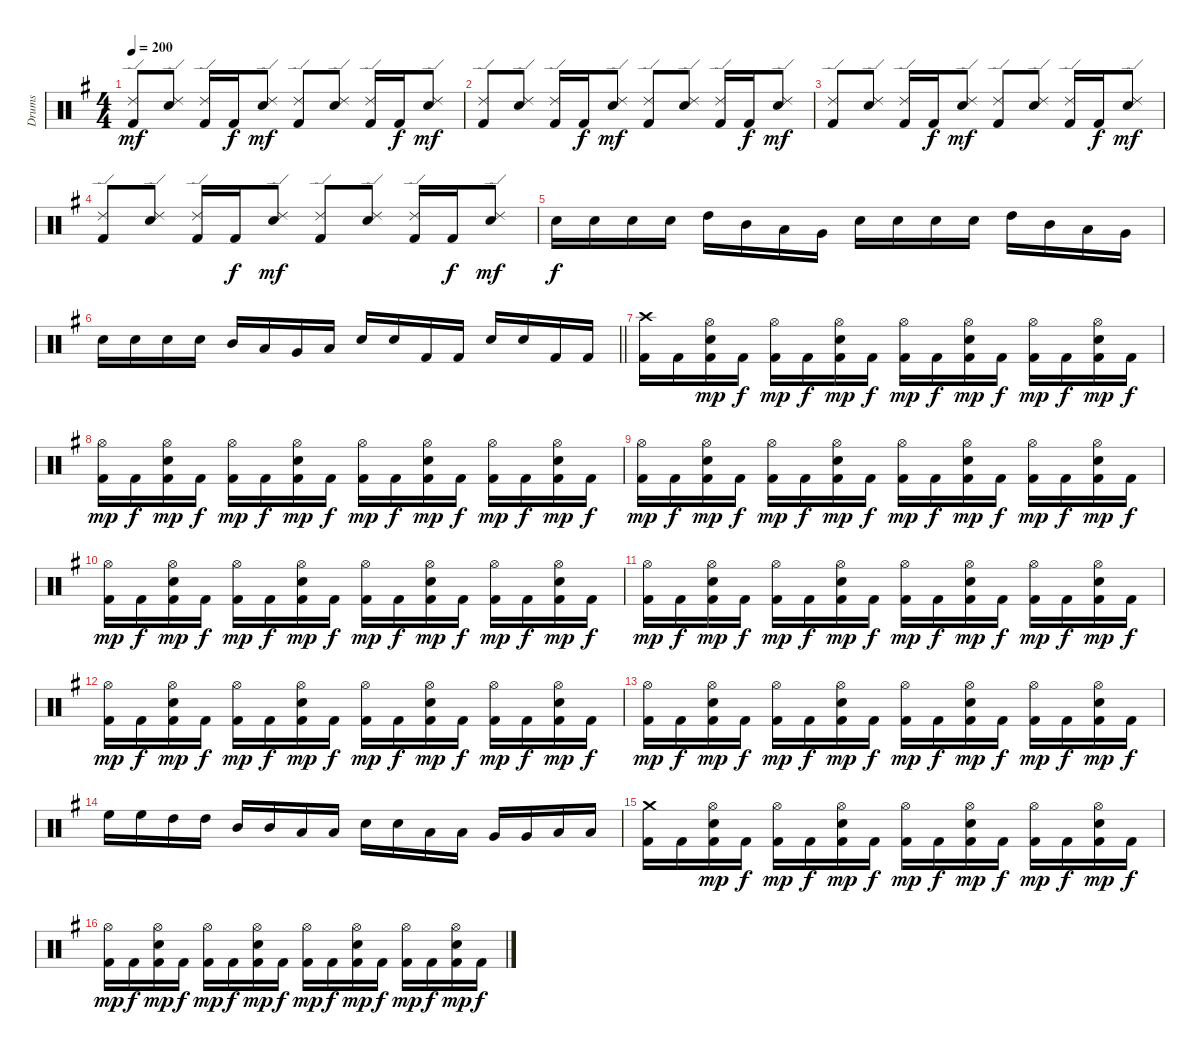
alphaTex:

\track ("Drums" "Drums") {instrument percussion}
\staff {score}
\articulation defaults
\ts (4 4)
\tempo 200
\clef neutral
\ks g
("Ride (edge) 2" "Kick (hit) 2").8{dy mf} ("Ride (edge) 2" "Snare (hit) 2").8 ("Ride (edge) 2" "Kick (hit) 2").16 "Kick (hit) 2".16{dy f} ("Ride (edge) 2" "Snare (hit) 2").8{dy mf} ("Ride (edge) 2" "Kick (hit) 2").8 ("Ride (edge) 2" "Snare (hit) 2").8 ("Ride (edge) 2" "Kick (hit) 2").16 "Kick (hit) 2".16{dy f} ("Ride (edge) 2" "Snare (hit) 2").8{dy mf} |
("Ride (edge) 2" "Kick (hit) 2").8 ("Ride (edge) 2" "Snare (hit) 2").8 ("Ride (edge) 2" "Kick (hit) 2").16 "Kick (hit) 2".16{dy f} ("Ride (edge) 2" "Snare (hit) 2").8{dy mf} ("Ride (edge) 2" "Kick (hit) 2").8 ("Ride (edge) 2" "Snare (hit) 2").8 ("Ride (edge) 2" "Kick (hit) 2").16 "Kick (hit) 2".16{dy f} ("Ride (edge) 2" "Snare (hit) 2").8{dy mf} |
("Ride (edge) 2" "Kick (hit) 2").8 ("Ride (edge) 2" "Snare (hit) 2").8 ("Ride (edge) 2" "Kick (hit) 2").16 "Kick (hit) 2".16{dy f} ("Ride (edge) 2" "Snare (hit) 2").8{dy mf} ("Ride (edge) 2" "Kick (hit) 2").8 ("Ride (edge) 2" "Snare (hit) 2").8 ("Ride (edge) 2" "Kick (hit) 2").16 "Kick (hit) 2".16{dy f} ("Ride (edge) 2" "Snare (hit) 2").8{dy mf} |
("Ride (edge) 2" "Kick (hit) 2").8 ("Ride (edge) 2" "Snare (hit) 2").8 ("Ride (edge) 2" "Kick (hit) 2").16 "Kick (hit) 2".16{dy f} ("Ride (edge) 2" "Snare (hit) 2").8{dy mf} ("Ride (edge) 2" "Kick (hit) 2").8 ("Ride (edge) 2" "Snare (hit) 2").8 ("Ride (edge) 2" "Kick (hit) 2").16 "Kick (hit) 2".16{dy f} ("Ride (edge) 2" "Snare (hit) 2").8{dy mf} |
"Snare (hit) 2".16{dy f} "Snare (hit) 2".16 "Snare (hit) 2".16 "Snare (hit) 2".16 "High Tom (hit)".16 "Mid Tom (hit)".16 "Low Tom (hit)".16 "Very Low Tom (hit)".16 "Snare (hit) 2".16 "Snare (hit) 2".16 "Snare (hit) 2".16 "Snare (hit) 2".16 "High Tom (hit)".16 "Mid Tom (hit)".16 "Low Tom (hit)".16 "Very Low Tom (hit)".16 |
\barLineRight lightlight "Snare (hit) 2".16 "Snare (hit) 2".16 "Snare (hit) 2".16 "Snare (hit) 2".16 "Mid Tom (hit)".16 "Low Tom (hit)".16 "Very Low Tom (hit)".16 "Low Floor Tom (hit)".16 "Snare (hit) 2".16 "Snare (hit) 2".16 "Kick (hit) 2".16 "Kick (hit) 2".16 "Snare (hit) 2".16 "Snare (hit) 2".16 "Kick (hit) 2".16 "Kick (hit) 2".16
|
\section ("" "")
("Crash high (hit)" "Kick (hit) 2").16 "Kick (hit) 2".16 ("Hi-Hat (open)" "Snare (hit) 2" "Kick (hit) 2").16{dy mp} "Kick (hit) 2".16{dy f} ("Hi-Hat (open)" "Kick (hit) 2").16{dy mp} "Kick (hit) 2".16{dy f} ("Hi-Hat (open)" "Snare (hit) 2" "Kick (hit) 2").16{dy mp} "Kick (hit) 2".16{dy f} ("Hi-Hat (open)" "Kick (hit) 2").16{dy mp} "Kick (hit) 2".16{dy f} ("Hi-Hat (open)" "Snare (hit) 2" "Kick (hit) 2").16{dy mp} "Kick (hit) 2".16{dy f} ("Hi-Hat (open)" "Kick (hit) 2").16{dy mp} "Kick (hit) 2".16{dy f} ("Hi-Hat (open)" "Snare (hit) 2" "Kick (hit) 2").16{dy mp} "Kick (hit) 2".16{dy f} |
("Hi-Hat (open)" "Kick (hit) 2").16{dy mp} "Kick (hit) 2".16{dy f} ("Hi-Hat (open)" "Snare (hit) 2" "Kick (hit) 2").16{dy mp} "Kick (hit) 2".16{dy f} ("Hi-Hat (open)" "Kick (hit) 2").16{dy mp} "Kick (hit) 2".16{dy f} ("Hi-Hat (open)" "Snare (hit) 2" "Kick (hit) 2").16{dy mp} "Kick (hit) 2".16{dy f} ("Hi-Hat (open)" "Kick (hit) 2").16{dy mp} "Kick (hit) 2".16{dy f} ("Hi-Hat (open)" "Snare (hit) 2" "Kick (hit) 2").16{dy mp} "Kick (hit) 2".16{dy f} ("Hi-Hat (open)" "Kick (hit) 2").16{dy mp} "Kick (hit) 2".16{dy f} ("Hi-Hat (open)" "Snare (hit) 2" "Kick (hit) 2").16{dy mp} "Kick (hit) 2".16{dy f} |
("Hi-Hat (open)" "Kick (hit) 2").16{dy mp} "Kick (hit) 2".16{dy f} ("Hi-Hat (open)" "Snare (hit) 2" "Kick (hit) 2").16{dy mp} "Kick (hit) 2".16{dy f} ("Hi-Hat (open)" "Kick (hit) 2").16{dy mp} "Kick (hit) 2".16{dy f} ("Hi-Hat (open)" "Snare (hit) 2" "Kick (hit) 2").16{dy mp} "Kick (hit) 2".16{dy f} ("Hi-Hat (open)" "Kick (hit) 2").16{dy mp} "Kick (hit) 2".16{dy f} ("Hi-Hat (open)" "Snare (hit) 2" "Kick (hit) 2").16{dy mp} "Kick (hit) 2".16{dy f} ("Hi-Hat (open)" "Kick (hit) 2").16{dy mp} "Kick (hit) 2".16{dy f} ("Hi-Hat (open)" "Snare (hit) 2" "Kick (hit) 2").16{dy mp} "Kick (hit) 2".16{dy f} |
("Hi-Hat (open)" "Kick (hit) 2").16{dy mp} "Kick (hit) 2".16{dy f} ("Hi-Hat (open)" "Snare (hit) 2" "Kick (hit) 2").16{dy mp} "Kick (hit) 2".16{dy f} ("Hi-Hat (open)" "Kick (hit) 2").16{dy mp} "Kick (hit) 2".16{dy f} ("Hi-Hat (open)" "Snare (hit) 2" "Kick (hit) 2").16{dy mp} "Kick (hit) 2".16{dy f} ("Hi-Hat (open)" "Kick (hit) 2").16{dy mp} "Kick (hit) 2".16{dy f} ("Hi-Hat (open)" "Snare (hit) 2" "Kick (hit) 2").16{dy mp} "Kick (hit) 2".16{dy f} ("Hi-Hat (open)" "Kick (hit) 2").16{dy mp} "Kick (hit) 2".16{dy f} ("Hi-Hat (open)" "Snare (hit) 2" "Kick (hit) 2").16{dy mp} "Kick (hit) 2".16{dy f} |
("Hi-Hat (open)" "Kick (hit) 2").16{dy mp} "Kick (hit) 2".16{dy f} ("Hi-Hat (open)" "Snare (hit) 2" "Kick (hit) 2").16{dy mp} "Kick (hit) 2".16{dy f} ("Hi-Hat (open)" "Kick (hit) 2").16{dy mp} "Kick (hit) 2".16{dy f} ("Hi-Hat (open)" "Snare (hit) 2" "Kick (hit) 2").16{dy mp} "Kick (hit) 2".16{dy f} ("Hi-Hat (open)" "Kick (hit) 2").16{dy mp} "Kick (hit) 2".16{dy f} ("Hi-Hat (open)" "Snare (hit) 2" "Kick (hit) 2").16{dy mp} "Kick (hit) 2".16{dy f} ("Hi-Hat (open)" "Kick (hit) 2").16{dy mp} "Kick (hit) 2".16{dy f} ("Hi-Hat (open)" "Snare (hit) 2" "Kick (hit) 2").16{dy mp} "Kick (hit) 2".16{dy f} |
("Hi-Hat (open)" "Kick (hit) 2").16{dy mp} "Kick (hit) 2".16{dy f} ("Hi-Hat (open)" "Snare (hit) 2" "Kick (hit) 2").16{dy mp} "Kick (hit) 2".16{dy f} ("Hi-Hat (open)" "Kick (hit) 2").16{dy mp} "Kick (hit) 2".16{dy f} ("Hi-Hat (open)" "Snare (hit) 2" "Kick (hit) 2").16{dy mp} "Kick (hit) 2".16{dy f} ("Hi-Hat (open)" "Kick (hit) 2").16{dy mp} "Kick (hit) 2".16{dy f} ("Hi-Hat (open)" "Snare (hit) 2" "Kick (hit) 2").16{dy mp} "Kick (hit) 2".16{dy f} ("Hi-Hat (open)" "Kick (hit) 2").16{dy mp} "Kick (hit) 2".16{dy f} ("Hi-Hat (open)" "Snare (hit) 2" "Kick (hit) 2").16{dy mp} "Kick (hit) 2".16{dy f} |
("Hi-Hat (open)" "Kick (hit) 2").16{dy mp} "Kick (hit) 2".16{dy f} ("Hi-Hat (open)" "Snare (hit) 2" "Kick (hit) 2").16{dy mp} "Kick (hit) 2".16{dy f} ("Hi-Hat (open)" "Kick (hit) 2").16{dy mp} "Kick (hit) 2".16{dy f} ("Hi-Hat (open)" "Snare (hit) 2" "Kick (hit) 2").16{dy mp} "Kick (hit) 2".16{dy f} ("Hi-Hat (open)" "Kick (hit) 2").16{dy mp} "Kick (hit) 2".16{dy f} ("Hi-Hat (open)" "Snare (hit) 2" "Kick (hit) 2").16{dy mp} "Kick (hit) 2".16{dy f} ("Hi-Hat (open)" "Kick (hit) 2").16{dy mp} "Kick (hit) 2".16{dy f} ("Hi-Hat (open)" "Snare (hit) 2" "Kick (hit) 2").16{dy mp} "Kick (hit) 2".16{dy f} |
"High Floor Tom (hit)".16 "High Floor Tom (hit)".16 "High Tom (hit)".16 "High Tom (hit)".16 "Mid Tom (hit)".16 "Mid Tom (hit)".16 "Low Tom (hit)".16 "Low Tom (hit)".16 "Snare (hit) 2".16 "Snare (hit) 2".16 "Low Tom (hit)".16 "Low Tom (hit)".16 "Very Low Tom (hit)".16 "Very Low Tom (hit)".16 "Low Floor Tom (hit)".16 "Low Floor Tom (hit)".16 |
("Crash medium (hit)" "Kick (hit) 2").16 "Kick (hit) 2".16 ("Hi-Hat (open)" "Snare (hit) 2" "Kick (hit) 2").16{dy mp} "Kick (hit) 2".16{dy f} ("Hi-Hat (open)" "Kick (hit) 2").16{dy mp} "Kick (hit) 2".16{dy f} ("Hi-Hat (open)" "Snare (hit) 2" "Kick (hit) 2").16{dy mp} "Kick (hit) 2".16{dy f} ("Hi-Hat (open)" "Kick (hit) 2").16{dy mp} "Kick (hit) 2".16{dy f} ("Hi-Hat (open)" "Snare (hit) 2" "Kick (hit) 2").16{dy mp} "Kick (hit) 2".16{dy f} ("Hi-Hat (open)" "Kick (hit) 2").16{dy mp} "Kick (hit) 2".16{dy f} ("Hi-Hat (open)" "Snare (hit) 2" "Kick (hit) 2").16{dy mp} "Kick (hit) 2".16{dy f} |
("Hi-Hat (open)" "Kick (hit) 2").16{dy mp} "Kick (hit) 2".16{dy f} ("Hi-Hat (open)" "Snare (hit) 2" "Kick (hit) 2").16{dy mp} "Kick (hit) 2".16{dy f} ("Hi-Hat (open)" "Kick (hit) 2").16{dy mp} "Kick (hit) 2".16{dy f} ("Hi-Hat (open)" "Snare (hit) 2" "Kick (hit) 2").16{dy mp} "Kick (hit) 2".16{dy f} ("Hi-Hat (open)" "Kick (hit) 2").16{dy mp} "Kick (hit) 2".16{dy f} ("Hi-Hat (open)" "Snare (hit) 2" "Kick (hit) 2").16{dy mp} "Kick (hit) 2".16{dy f} ("Hi-Hat (open)" "Kick (hit) 2").16{dy mp} "Kick (hit) 2".16{dy f} ("Hi-Hat (open)" "Snare (hit) 2" "Kick (hit) 2").16{dy mp} "Kick (hit) 2".16{dy f}
